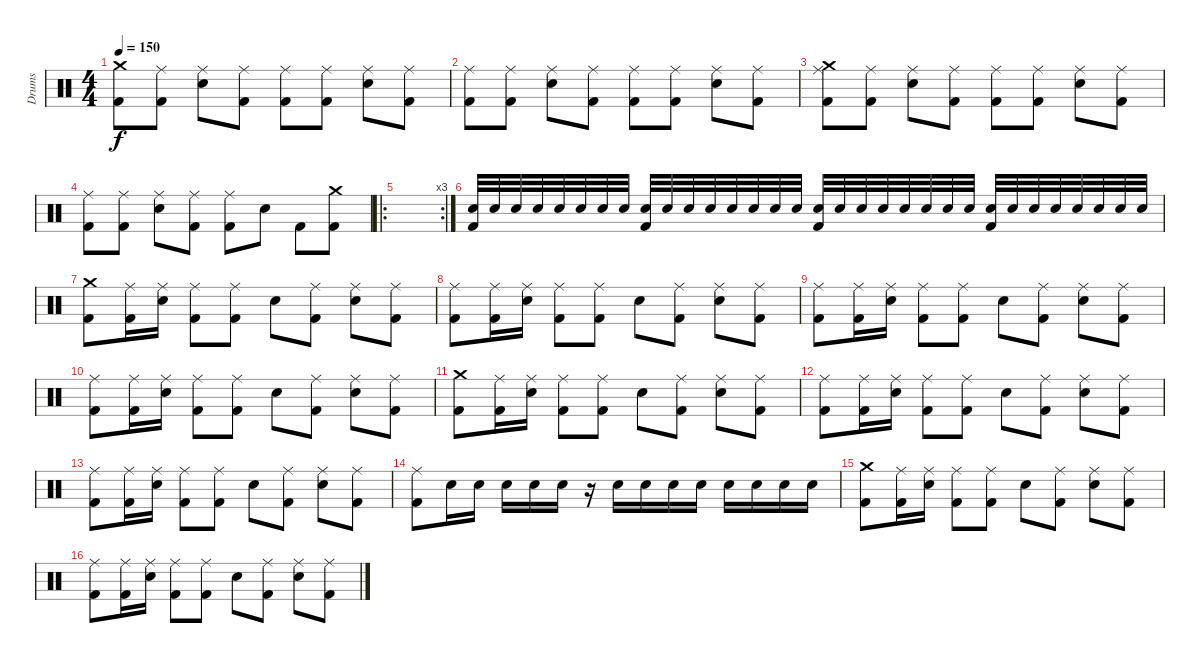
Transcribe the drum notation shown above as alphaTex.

\track ("Drums" "Drums") {instrument percussion}
\staff {score}
\articulation defaults
\ts (4 4)
\tempo 150
\clef neutral
\ks c
("Crash medium (hit)" "Kick (hit) 2").8{dy f} ("Ride (middle)" "Kick (hit) 2").8 ("Ride (middle)" "Electric Snare (hit)").8 ("Ride (middle)" "Kick (hit) 2").8 ("Ride (middle)" "Kick (hit) 2").8 ("Ride (middle)" "Kick (hit) 2").8 ("Ride (middle)" "Electric Snare (hit)").8 ("Ride (middle)" "Kick (hit) 2").8 |
("Ride (middle)" "Kick (hit) 2").8 ("Ride (middle)" "Kick (hit) 2").8 ("Ride (middle)" "Electric Snare (hit)").8 ("Ride (middle)" "Kick (hit) 2").8 ("Ride (middle)" "Kick (hit) 2").8 ("Ride (middle)" "Kick (hit) 2").8 ("Ride (middle)" "Electric Snare (hit)").8 ("Ride (middle)" "Kick (hit) 2").8 |
("Crash medium (hit)" "Ride (middle)" "Kick (hit) 2").8 ("Ride (middle)" "Kick (hit) 2").8 ("Ride (middle)" "Electric Snare (hit)").8 ("Ride (middle)" "Kick (hit) 2").8 ("Ride (middle)" "Kick (hit) 2").8 ("Ride (middle)" "Kick (hit) 2").8 ("Ride (middle)" "Electric Snare (hit)").8 ("Ride (middle)" "Kick (hit) 2").8 |
("Ride (middle)" "Kick (hit) 2").8 ("Ride (middle)" "Kick (hit) 2").8 ("Ride (middle)" "Electric Snare (hit)").8 ("Ride (middle)" "Kick (hit) 2").8 ("Ride (middle)" "Kick (hit) 2").8 "Electric Snare (hit)".8 "Kick (hit) 2".8 ("Crash medium (hit)" "Kick (hit) 2").8 |
\ro
\rc 3
|
("Electric Snare (hit)" "Kick (hit) 2").32 "Electric Snare (hit)".32 "Electric Snare (hit)".32 "Electric Snare (hit)".32 "Electric Snare (hit)".32 "Electric Snare (hit)".32 "Electric Snare (hit)".32 "Electric Snare (hit)".32 ("Electric Snare (hit)" "Kick (hit) 2").32 "Electric Snare (hit)".32 "Electric Snare (hit)".32 "Electric Snare (hit)".32 "Electric Snare (hit)".32 "Electric Snare (hit)".32 "Electric Snare (hit)".32 "Electric Snare (hit)".32 ("Electric Snare (hit)" "Kick (hit) 2").32 "Electric Snare (hit)".32 "Electric Snare (hit)".32 "Electric Snare (hit)".32 "Electric Snare (hit)".32 "Electric Snare (hit)".32 "Electric Snare (hit)".32 "Electric Snare (hit)".32 ("Electric Snare (hit)" "Kick (hit) 2").32 "Electric Snare (hit)".32 "Electric Snare (hit)".32 "Electric Snare (hit)".32 "Electric Snare (hit)".32 "Electric Snare (hit)".32 "Electric Snare (hit)".32 "Electric Snare (hit)".32 |
("Crash medium (hit)" "Kick (hit) 2").8 ("Ride (middle)" "Kick (hit) 2").16 ("Ride (middle)" "Electric Snare (hit)").16 ("Ride (middle)" "Kick (hit) 2").8 ("Ride (middle)" "Kick (hit) 2").8 "Electric Snare (hit)".8 ("Ride (middle)" "Kick (hit) 2").8 ("Ride (middle)" "Electric Snare (hit)").8 ("Ride (middle)" "Kick (hit) 2").8 |
("Ride (middle)" "Kick (hit) 2").8 ("Ride (middle)" "Kick (hit) 2").16 ("Ride (middle)" "Electric Snare (hit)").16 ("Ride (middle)" "Kick (hit) 2").8 ("Ride (middle)" "Kick (hit) 2").8 "Electric Snare (hit)".8 ("Ride (middle)" "Kick (hit) 2").8 ("Ride (middle)" "Electric Snare (hit)").8 ("Ride (middle)" "Kick (hit) 2").8 |
("Ride (middle)" "Kick (hit) 2").8 ("Ride (middle)" "Kick (hit) 2").16 ("Ride (middle)" "Electric Snare (hit)").16 ("Ride (middle)" "Kick (hit) 2").8 ("Ride (middle)" "Kick (hit) 2").8 "Electric Snare (hit)".8 ("Ride (middle)" "Kick (hit) 2").8 ("Ride (middle)" "Electric Snare (hit)").8 ("Ride (middle)" "Kick (hit) 2").8 |
("Ride (middle)" "Kick (hit) 2").8 ("Ride (middle)" "Kick (hit) 2").16 ("Ride (middle)" "Electric Snare (hit)").16 ("Ride (middle)" "Kick (hit) 2").8 ("Ride (middle)" "Kick (hit) 2").8 "Electric Snare (hit)".8 ("Ride (middle)" "Kick (hit) 2").8 ("Ride (middle)" "Electric Snare (hit)").8 ("Ride (middle)" "Kick (hit) 2").8 |
("Crash medium (hit)" "Kick (hit) 2").8 ("Ride (middle)" "Kick (hit) 2").16 ("Ride (middle)" "Electric Snare (hit)").16 ("Ride (middle)" "Kick (hit) 2").8 ("Ride (middle)" "Kick (hit) 2").8 "Electric Snare (hit)".8 ("Ride (middle)" "Kick (hit) 2").8 ("Ride (middle)" "Electric Snare (hit)").8 ("Ride (middle)" "Kick (hit) 2").8 |
("Ride (middle)" "Kick (hit) 2").8 ("Ride (middle)" "Kick (hit) 2").16 ("Ride (middle)" "Electric Snare (hit)").16 ("Ride (middle)" "Kick (hit) 2").8 ("Ride (middle)" "Kick (hit) 2").8 "Electric Snare (hit)".8 ("Ride (middle)" "Kick (hit) 2").8 ("Ride (middle)" "Electric Snare (hit)").8 ("Ride (middle)" "Kick (hit) 2").8 |
("Ride (middle)" "Kick (hit) 2").8 ("Ride (middle)" "Kick (hit) 2").16 ("Ride (middle)" "Electric Snare (hit)").16 ("Ride (middle)" "Kick (hit) 2").8 ("Ride (middle)" "Kick (hit) 2").8 "Electric Snare (hit)".8 ("Ride (middle)" "Kick (hit) 2").8 ("Ride (middle)" "Electric Snare (hit)").8 ("Ride (middle)" "Kick (hit) 2").8 |
("Ride (middle)" "Kick (hit) 2").8 "Electric Snare (hit)".16 "Electric Snare (hit)".16 "Electric Snare (hit)".16 "Electric Snare (hit)".16 "Electric Snare (hit)".16 r.16 "Electric Snare (hit)".16 "Electric Snare (hit)".16 "Electric Snare (hit)".16 "Electric Snare (hit)".16 "Electric Snare (hit)".16 "Electric Snare (hit)".16 "Electric Snare (hit)".16 "Electric Snare (hit)".16 |
("Crash medium (hit)" "Kick (hit) 2").8 ("Ride (middle)" "Kick (hit) 2").16 ("Ride (middle)" "Electric Snare (hit)").16 ("Ride (middle)" "Kick (hit) 2").8 ("Ride (middle)" "Kick (hit) 2").8 "Electric Snare (hit)".8 ("Ride (middle)" "Kick (hit) 2").8 ("Ride (middle)" "Electric Snare (hit)").8 ("Ride (middle)" "Kick (hit) 2").8 |
("Ride (middle)" "Kick (hit) 2").8 ("Ride (middle)" "Kick (hit) 2").16 ("Ride (middle)" "Electric Snare (hit)").16 ("Ride (middle)" "Kick (hit) 2").8 ("Ride (middle)" "Kick (hit) 2").8 "Electric Snare (hit)".8 ("Ride (middle)" "Kick (hit) 2").8 ("Ride (middle)" "Electric Snare (hit)").8 ("Ride (middle)" "Kick (hit) 2").8
